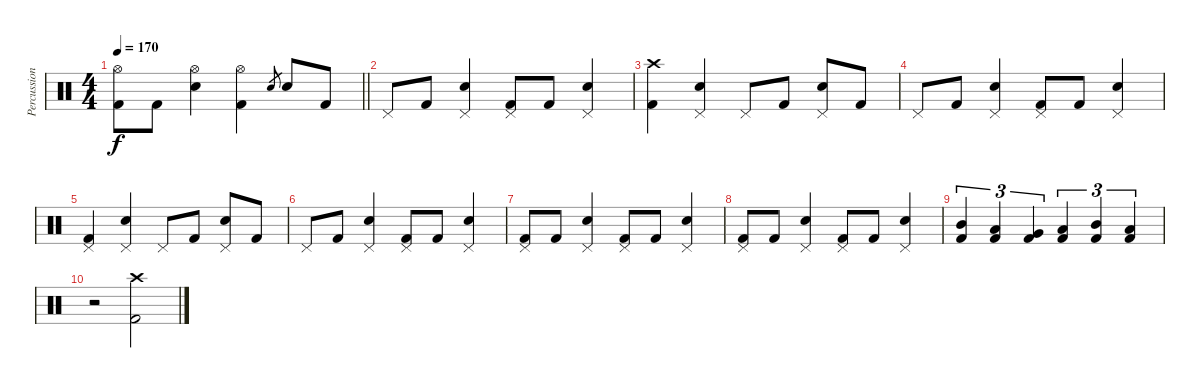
\track ("Percussion" "Percussion") {instrument percussion}
\staff {score}
\articulation defaults
\ts (4 4)
\tempo 170
\clef neutral
\barLineRight lightlight
\ks c
("Hi-Hat (open)" "Kick (hit) 2").8{dy f} "Kick (hit) 2".8 ("Hi-Hat (open)" "Electric Snare (hit)").4 ("Hi-Hat (open)" "Kick (hit) 2").4 "Electric Snare (hit)".8{gr} "Electric Snare (hit)".8 "Kick (hit) 2".8 |
"Pedal Hi-Hat (hit)".8 "Kick (hit) 2".8 ("Pedal Hi-Hat (hit)" "Electric Snare (hit)").4 ("Pedal Hi-Hat (hit)" "Kick (hit) 2").8 "Kick (hit) 2".8 ("Pedal Hi-Hat (hit)" "Electric Snare (hit)").4 |
("Crash high (hit)" "Kick (hit) 2").4 ("Pedal Hi-Hat (hit)" "Electric Snare (hit)").4 "Pedal Hi-Hat (hit)".8 "Kick (hit) 2".8 ("Pedal Hi-Hat (hit)" "Electric Snare (hit)").8 "Kick (hit) 2".8 |
"Pedal Hi-Hat (hit)".8 "Kick (hit) 2".8 ("Pedal Hi-Hat (hit)" "Electric Snare (hit)").4 ("Pedal Hi-Hat (hit)" "Kick (hit) 2").8 "Kick (hit) 2".8 ("Pedal Hi-Hat (hit)" "Electric Snare (hit)").4 |
("Pedal Hi-Hat (hit)" "Kick (hit) 2").4 ("Pedal Hi-Hat (hit)" "Electric Snare (hit)").4 "Pedal Hi-Hat (hit)".8 "Kick (hit) 2".8 ("Pedal Hi-Hat (hit)" "Electric Snare (hit)").8 "Kick (hit) 2".8 |
"Pedal Hi-Hat (hit)".8 "Kick (hit) 2".8 ("Pedal Hi-Hat (hit)" "Electric Snare (hit)").4 ("Pedal Hi-Hat (hit)" "Kick (hit) 2").8 "Kick (hit) 2".8 ("Pedal Hi-Hat (hit)" "Electric Snare (hit)").4 |
("Pedal Hi-Hat (hit)" "Kick (hit) 2").8 "Kick (hit) 2".8 ("Pedal Hi-Hat (hit)" "Electric Snare (hit)").4 ("Pedal Hi-Hat (hit)" "Kick (hit) 2").8 "Kick (hit) 2".8 ("Pedal Hi-Hat (hit)" "Electric Snare (hit)").4 |
("Pedal Hi-Hat (hit)" "Kick (hit) 2").8 "Kick (hit) 2".8 ("Pedal Hi-Hat (hit)" "Electric Snare (hit)").4 ("Pedal Hi-Hat (hit)" "Kick (hit) 2").8 "Kick (hit) 2".8 ("Pedal Hi-Hat (hit)" "Electric Snare (hit)").4 |
("Mid Tom (hit)" "Kick (hit) 2").4{tu (3 2)} ("Low Tom (hit)" "Kick (hit) 2").4{tu (3 2)} ("Very Low Tom (hit)" "Kick (hit) 2").4{tu (3 2)} ("Low Tom (hit)" "Kick (hit) 2").4{tu (3 2)} ("Mid Tom (hit)" "Kick (hit) 2").4{tu (3 2)} ("Low Tom (hit)" "Kick (hit) 2").4{tu (3 2)} |
r.2 ("Crash high (hit)" "Kick (hit) 2").2
